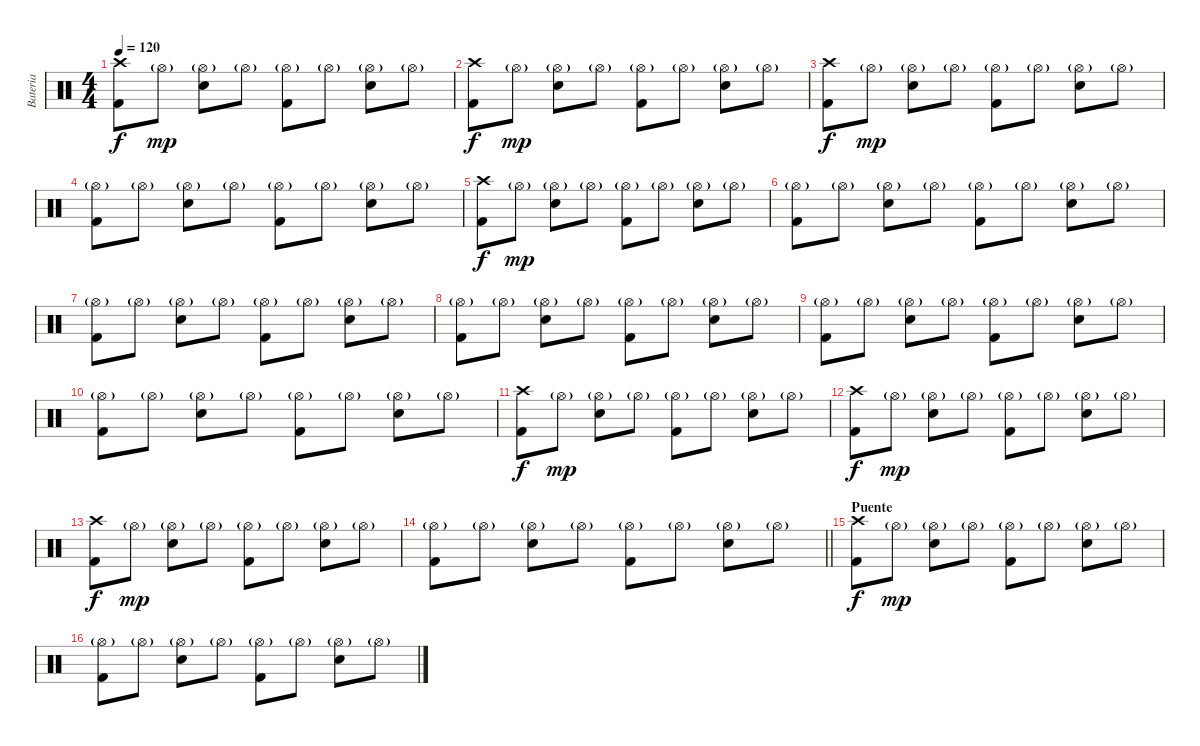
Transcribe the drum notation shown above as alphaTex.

\track ("Bateria" "Bateria") {instrument percussion}
\staff {score}
\articulation defaults
\ts (4 4)
\tempo 120
\clef neutral
\ks c
("Crash high (hit)" "Kick (hit) 2").8{dy f} "Hi-Hat (open)"{g}.8{dy mp} ("Hi-Hat (open)"{g} "Snare (hit) 2").8 "Hi-Hat (open)"{g}.8 ("Hi-Hat (open)"{g} "Kick (hit) 2").8 "Hi-Hat (open)"{g}.8 ("Hi-Hat (open)"{g} "Snare (hit) 2").8 "Hi-Hat (open)"{g}.8 |
("Crash high (hit)" "Kick (hit) 2").8{dy f} "Hi-Hat (open)"{g}.8{dy mp} ("Hi-Hat (open)"{g} "Snare (hit) 2").8 "Hi-Hat (open)"{g}.8 ("Hi-Hat (open)"{g} "Kick (hit) 2").8 "Hi-Hat (open)"{g}.8 ("Hi-Hat (open)"{g} "Snare (hit) 2").8 "Hi-Hat (open)"{g}.8 |
("Crash high (hit)" "Kick (hit) 2").8{dy f} "Hi-Hat (open)"{g}.8{dy mp} ("Hi-Hat (open)"{g} "Snare (hit) 2").8 "Hi-Hat (open)"{g}.8 ("Hi-Hat (open)"{g} "Kick (hit) 2").8 "Hi-Hat (open)"{g}.8 ("Hi-Hat (open)"{g} "Snare (hit) 2").8 "Hi-Hat (open)"{g}.8 |
("Hi-Hat (open)"{g} "Kick (hit) 2").8 "Hi-Hat (open)"{g}.8 ("Hi-Hat (open)"{g} "Snare (hit) 2").8 "Hi-Hat (open)"{g}.8 ("Hi-Hat (open)"{g} "Kick (hit) 2").8 "Hi-Hat (open)"{g}.8 ("Hi-Hat (open)"{g} "Snare (hit) 2").8 "Hi-Hat (open)"{g}.8 |
("Crash high (hit)" "Kick (hit) 2").8{dy f} "Hi-Hat (open)"{g}.8{dy mp} ("Hi-Hat (open)"{g} "Snare (hit) 2").8 "Hi-Hat (open)"{g}.8 ("Hi-Hat (open)"{g} "Kick (hit) 2").8 "Hi-Hat (open)"{g}.8 ("Hi-Hat (open)"{g} "Snare (hit) 2").8 "Hi-Hat (open)"{g}.8 |
("Hi-Hat (open)"{g} "Kick (hit) 2").8 "Hi-Hat (open)"{g}.8 ("Hi-Hat (open)"{g} "Snare (hit) 2").8 "Hi-Hat (open)"{g}.8 ("Hi-Hat (open)"{g} "Kick (hit) 2").8 "Hi-Hat (open)"{g}.8 ("Hi-Hat (open)"{g} "Snare (hit) 2").8 "Hi-Hat (open)"{g}.8 |
("Hi-Hat (open)"{g} "Kick (hit) 2").8 "Hi-Hat (open)"{g}.8 ("Hi-Hat (open)"{g} "Snare (hit) 2").8 "Hi-Hat (open)"{g}.8 ("Hi-Hat (open)"{g} "Kick (hit) 2").8 "Hi-Hat (open)"{g}.8 ("Hi-Hat (open)"{g} "Snare (hit) 2").8 "Hi-Hat (open)"{g}.8 |
("Hi-Hat (open)"{g} "Kick (hit) 2").8 "Hi-Hat (open)"{g}.8 ("Hi-Hat (open)"{g} "Snare (hit) 2").8 "Hi-Hat (open)"{g}.8 ("Hi-Hat (open)"{g} "Kick (hit) 2").8 "Hi-Hat (open)"{g}.8 ("Hi-Hat (open)"{g} "Snare (hit) 2").8 "Hi-Hat (open)"{g}.8 |
("Hi-Hat (open)"{g} "Kick (hit) 2").8 "Hi-Hat (open)"{g}.8 ("Hi-Hat (open)"{g} "Snare (hit) 2").8 "Hi-Hat (open)"{g}.8 ("Hi-Hat (open)"{g} "Kick (hit) 2").8 "Hi-Hat (open)"{g}.8 ("Hi-Hat (open)"{g} "Snare (hit) 2").8 "Hi-Hat (open)"{g}.8 |
("Hi-Hat (open)"{g} "Kick (hit) 2").8 "Hi-Hat (open)"{g}.8 ("Hi-Hat (open)"{g} "Snare (hit) 2").8 "Hi-Hat (open)"{g}.8 ("Hi-Hat (open)"{g} "Kick (hit) 2").8 "Hi-Hat (open)"{g}.8 ("Hi-Hat (open)"{g} "Snare (hit) 2").8 "Hi-Hat (open)"{g}.8 |
("Crash high (hit)" "Kick (hit) 2").8{dy f} "Hi-Hat (open)"{g}.8{dy mp} ("Hi-Hat (open)"{g} "Snare (hit) 2").8 "Hi-Hat (open)"{g}.8 ("Hi-Hat (open)"{g} "Kick (hit) 2").8 "Hi-Hat (open)"{g}.8 ("Hi-Hat (open)"{g} "Snare (hit) 2").8 "Hi-Hat (open)"{g}.8 |
("Crash high (hit)" "Kick (hit) 2").8{dy f} "Hi-Hat (open)"{g}.8{dy mp} ("Hi-Hat (open)"{g} "Snare (hit) 2").8 "Hi-Hat (open)"{g}.8 ("Hi-Hat (open)"{g} "Kick (hit) 2").8 "Hi-Hat (open)"{g}.8 ("Hi-Hat (open)"{g} "Snare (hit) 2").8 "Hi-Hat (open)"{g}.8 |
("Crash high (hit)" "Kick (hit) 2").8{dy f} "Hi-Hat (open)"{g}.8{dy mp} ("Hi-Hat (open)"{g} "Snare (hit) 2").8 "Hi-Hat (open)"{g}.8 ("Hi-Hat (open)"{g} "Kick (hit) 2").8 "Hi-Hat (open)"{g}.8 ("Hi-Hat (open)"{g} "Snare (hit) 2").8 "Hi-Hat (open)"{g}.8 |
\barLineRight lightlight
("Hi-Hat (open)"{g} "Kick (hit) 2").8 "Hi-Hat (open)"{g}.8 ("Hi-Hat (open)"{g} "Snare (hit) 2").8 "Hi-Hat (open)"{g}.8 ("Hi-Hat (open)"{g} "Kick (hit) 2").8 "Hi-Hat (open)"{g}.8 ("Hi-Hat (open)"{g} "Snare (hit) 2").8 "Hi-Hat (open)"{g}.8 |
\section ("" "Puente")
("Crash high (hit)" "Kick (hit) 2").8{dy f} "Hi-Hat (open)"{g}.8{dy mp} ("Hi-Hat (open)"{g} "Snare (hit) 2").8 "Hi-Hat (open)"{g}.8 ("Hi-Hat (open)"{g} "Kick (hit) 2").8 "Hi-Hat (open)"{g}.8 ("Hi-Hat (open)"{g} "Snare (hit) 2").8 "Hi-Hat (open)"{g}.8 |
("Hi-Hat (open)"{g} "Kick (hit) 2").8 "Hi-Hat (open)"{g}.8 ("Hi-Hat (open)"{g} "Snare (hit) 2").8 "Hi-Hat (open)"{g}.8 ("Hi-Hat (open)"{g} "Kick (hit) 2").8 "Hi-Hat (open)"{g}.8 ("Hi-Hat (open)"{g} "Snare (hit) 2").8 "Hi-Hat (open)"{g}.8
